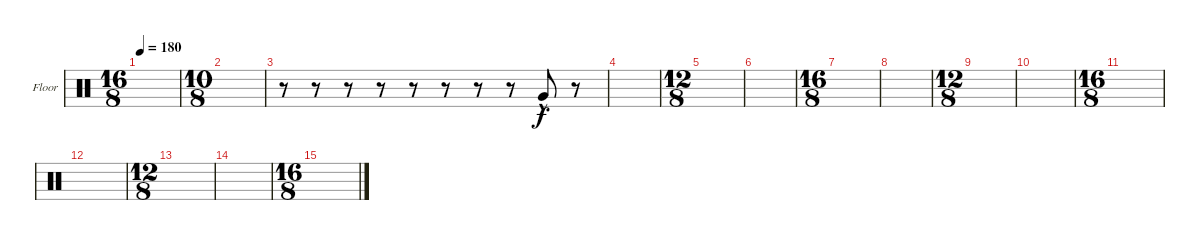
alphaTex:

\defaultSystemsLayout 4
\bracketExtendMode groupsimilarinstruments
\firstSystemTrackNameOrientation horizontal
\otherSystemsTrackNameOrientation horizontal
\track ("Floor Toms" "Floor") {instrument percussion}
\staff {score}
\articulation defaults
\ts (16 8)
\tempo 180
\clef neutral
\ks c
|
\ts (10 8)
|
r.8 r.8 r.8 r.8 r.8 r.8 r.8 r.8 "Very Low Tom (hit)"{hac}.8 r.8 |
|
\ts (12 8)
|
|
\ts (16 8)
|
|
\ts (12 8)
|
|
\ts (16 8)
|
|
\ts (12 8)
|
|
\ts (16 8)
